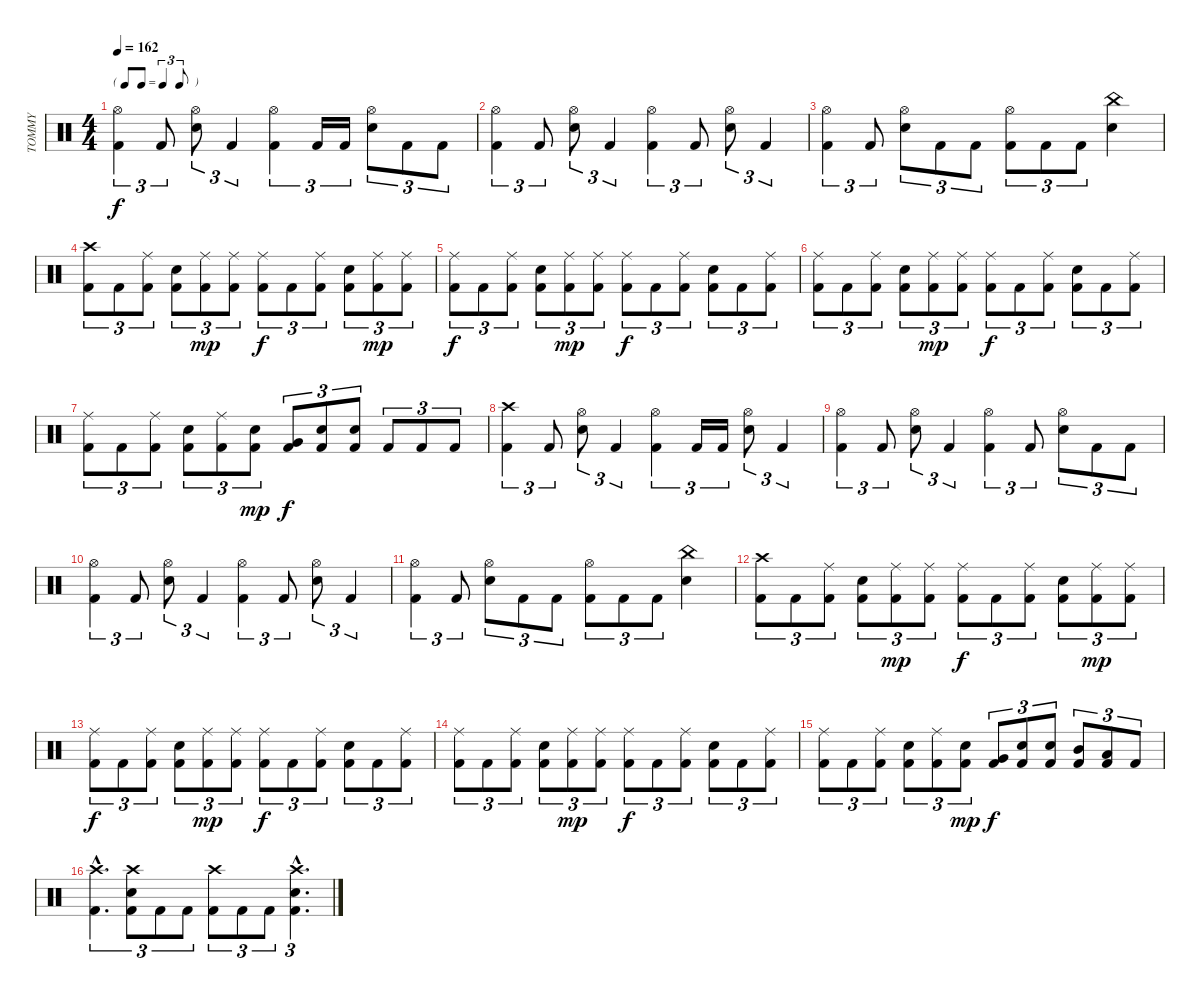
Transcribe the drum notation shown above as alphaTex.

\track ("TOMMY" "TOMMY") {instrument percussion}
\staff {score}
\articulation defaults
\ts (4 4)
\tf triplet8th
\tempo 162
\clef neutral
\ks c
("Kick (hit) 2" "Hi-Hat (open)").4{tu (3 2) dy f} "Kick (hit) 2".8{tu (3 2)} ("Snare (hit) 2" "Hi-Hat (open)").8{tu (3 2)} "Kick (hit) 2".4{tu (3 2)} ("Kick (hit) 2" "Hi-Hat (open)").4{tu (3 2)} "Kick (hit) 2".16{tu (3 2)} "Kick (hit) 2".16{tu (3 2)} ("Snare (hit) 2" "Hi-Hat (open)").8{tu (3 2)} "Kick (hit) 2".8{tu (3 2)} "Kick (hit) 2".8{tu (3 2)} |
("Kick (hit) 2" "Hi-Hat (open)").4{tu (3 2)} "Kick (hit) 2".8{tu (3 2)} ("Snare (hit) 2" "Hi-Hat (open)").8{tu (3 2)} "Kick (hit) 2".4{tu (3 2)} ("Kick (hit) 2" "Hi-Hat (open)").4{tu (3 2)} "Kick (hit) 2".8{tu (3 2)} ("Snare (hit) 2" "Hi-Hat (open)").8{tu (3 2)} "Kick (hit) 2".4{tu (3 2)} |
("Kick (hit) 2" "Hi-Hat (open)").4{tu (3 2)} "Kick (hit) 2".8{tu (3 2)} ("Snare (hit) 2" "Hi-Hat (open)").8{tu (3 2)} "Kick (hit) 2".8{tu (3 2)} "Kick (hit) 2".8{tu (3 2)} ("Kick (hit) 2" "Hi-Hat (open)").8{tu (3 2)} "Kick (hit) 2".8{tu (3 2)} "Kick (hit) 2".8{tu (3 2)} ("Snare (hit) 2" "China (hit)").4 |
("Kick (hit) 2" "Crash high (hit)").8{tu (3 2)} "Kick (hit) 2".8{tu (3 2)} ("Kick (hit) 2" "Ride (middle)").8{tu (3 2)} ("Snare (hit) 2" "Kick (hit) 2").8{tu (3 2)} ("Kick (hit) 2" "Ride (middle)").8{tu (3 2) dy mp} ("Kick (hit) 2" "Ride (middle)").8{tu (3 2)} ("Kick (hit) 2" "Ride (middle)").8{tu (3 2) dy f} "Kick (hit) 2".8{tu (3 2)} ("Kick (hit) 2" "Ride (middle)").8{tu (3 2)} ("Snare (hit) 2" "Kick (hit) 2").8{tu (3 2)} ("Kick (hit) 2" "Ride (middle)").8{tu (3 2) dy mp} ("Kick (hit) 2" "Ride (middle)").8{tu (3 2)} |
("Kick (hit) 2" "Ride (middle)").8{tu (3 2) dy f} "Kick (hit) 2".8{tu (3 2)} ("Kick (hit) 2" "Ride (middle)").8{tu (3 2)} ("Snare (hit) 2" "Kick (hit) 2").8{tu (3 2)} ("Kick (hit) 2" "Ride (middle)").8{tu (3 2) dy mp} ("Kick (hit) 2" "Ride (middle)").8{tu (3 2)} ("Kick (hit) 2" "Ride (middle)").8{tu (3 2) dy f} "Kick (hit) 2".8{tu (3 2)} ("Kick (hit) 2" "Ride (middle)").8{tu (3 2)} ("Snare (hit) 2" "Kick (hit) 2").8{tu (3 2)} "Kick (hit) 2".8{tu (3 2)} ("Kick (hit) 2" "Ride (middle)").8{tu (3 2)} |
("Kick (hit) 2" "Ride (middle)").8{tu (3 2)} "Kick (hit) 2".8{tu (3 2)} ("Kick (hit) 2" "Ride (middle)").8{tu (3 2)} ("Snare (hit) 2" "Kick (hit) 2").8{tu (3 2)} ("Kick (hit) 2" "Ride (middle)").8{tu (3 2) dy mp} ("Kick (hit) 2" "Ride (middle)").8{tu (3 2)} ("Kick (hit) 2" "Ride (middle)").8{tu (3 2) dy f} "Kick (hit) 2".8{tu (3 2)} ("Kick (hit) 2" "Ride (middle)").8{tu (3 2)} ("Snare (hit) 2" "Kick (hit) 2").8{tu (3 2)} "Kick (hit) 2".8{tu (3 2)} ("Kick (hit) 2" "Ride (middle)").8{tu (3 2)} |
("Kick (hit) 2" "Ride (middle)").8{tu (3 2)} "Kick (hit) 2".8{tu (3 2)} ("Kick (hit) 2" "Ride (middle)").8{tu (3 2)} ("Snare (hit) 2" "Kick (hit) 2").8{tu (3 2)} ("Kick (hit) 2" "Ride (middle)").8{tu (3 2)} ("Snare (hit) 2" "Kick (hit) 2").8{tu (3 2) dy mp} ("Kick (hit) 2" "Very Low Tom (hit)").8{tu (3 2) dy f} ("Snare (hit) 2" "Kick (hit) 2").8{tu (3 2)} ("Snare (hit) 2" "Kick (hit) 2").8{tu (3 2)} "Kick (hit) 2".8{tu (3 2)} "Kick (hit) 2".8{tu (3 2)} "Kick (hit) 2".8{tu (3 2)} |
("Kick (hit) 2" "Crash high (hit)").4{tu (3 2)} "Kick (hit) 2".8{tu (3 2)} ("Snare (hit) 2" "Hi-Hat (open)").8{tu (3 2)} "Kick (hit) 2".4{tu (3 2)} ("Kick (hit) 2" "Hi-Hat (open)").4{tu (3 2)} "Kick (hit) 2".16{tu (3 2)} "Kick (hit) 2".16{tu (3 2)} ("Snare (hit) 2" "Hi-Hat (open)").8{tu (3 2)} "Kick (hit) 2".4{tu (3 2)} |
("Kick (hit) 2" "Hi-Hat (open)").4{tu (3 2)} "Kick (hit) 2".8{tu (3 2)} ("Snare (hit) 2" "Hi-Hat (open)").8{tu (3 2)} "Kick (hit) 2".4{tu (3 2)} ("Kick (hit) 2" "Hi-Hat (open)").4{tu (3 2)} "Kick (hit) 2".8{tu (3 2)} ("Snare (hit) 2" "Hi-Hat (open)").8{tu (3 2)} "Kick (hit) 2".8{tu (3 2)} "Kick (hit) 2".8{tu (3 2)} |
("Kick (hit) 2" "Hi-Hat (open)").4{tu (3 2)} "Kick (hit) 2".8{tu (3 2)} ("Snare (hit) 2" "Hi-Hat (open)").8{tu (3 2)} "Kick (hit) 2".4{tu (3 2)} ("Kick (hit) 2" "Hi-Hat (open)").4{tu (3 2)} "Kick (hit) 2".8{tu (3 2)} ("Snare (hit) 2" "Hi-Hat (open)").8{tu (3 2)} "Kick (hit) 2".4{tu (3 2)} |
("Kick (hit) 2" "Hi-Hat (open)").4{tu (3 2)} "Kick (hit) 2".8{tu (3 2)} ("Snare (hit) 2" "Hi-Hat (open)").8{tu (3 2)} "Kick (hit) 2".8{tu (3 2)} "Kick (hit) 2".8{tu (3 2)} ("Kick (hit) 2" "Hi-Hat (open)").8{tu (3 2)} "Kick (hit) 2".8{tu (3 2)} "Kick (hit) 2".8{tu (3 2)} ("Snare (hit) 2" "China (hit)").4 |
("Kick (hit) 2" "Crash high (hit)").8{tu (3 2)} "Kick (hit) 2".8{tu (3 2)} ("Kick (hit) 2" "Ride (middle)").8{tu (3 2)} ("Snare (hit) 2" "Kick (hit) 2").8{tu (3 2)} ("Kick (hit) 2" "Ride (middle)").8{tu (3 2) dy mp} ("Kick (hit) 2" "Ride (middle)").8{tu (3 2)} ("Kick (hit) 2" "Ride (middle)").8{tu (3 2) dy f} "Kick (hit) 2".8{tu (3 2)} ("Kick (hit) 2" "Ride (middle)").8{tu (3 2)} ("Snare (hit) 2" "Kick (hit) 2").8{tu (3 2)} ("Kick (hit) 2" "Ride (middle)").8{tu (3 2) dy mp} ("Kick (hit) 2" "Ride (middle)").8{tu (3 2)} |
("Kick (hit) 2" "Ride (middle)").8{tu (3 2) dy f} "Kick (hit) 2".8{tu (3 2)} ("Kick (hit) 2" "Ride (middle)").8{tu (3 2)} ("Snare (hit) 2" "Kick (hit) 2").8{tu (3 2)} ("Kick (hit) 2" "Ride (middle)").8{tu (3 2) dy mp} ("Kick (hit) 2" "Ride (middle)").8{tu (3 2)} ("Kick (hit) 2" "Ride (middle)").8{tu (3 2) dy f} "Kick (hit) 2".8{tu (3 2)} ("Kick (hit) 2" "Ride (middle)").8{tu (3 2)} ("Snare (hit) 2" "Kick (hit) 2").8{tu (3 2)} "Kick (hit) 2".8{tu (3 2)} ("Kick (hit) 2" "Ride (middle)").8{tu (3 2)} |
("Kick (hit) 2" "Ride (middle)").8{tu (3 2)} "Kick (hit) 2".8{tu (3 2)} ("Kick (hit) 2" "Ride (middle)").8{tu (3 2)} ("Snare (hit) 2" "Kick (hit) 2").8{tu (3 2)} ("Kick (hit) 2" "Ride (middle)").8{tu (3 2) dy mp} ("Kick (hit) 2" "Ride (middle)").8{tu (3 2)} ("Kick (hit) 2" "Ride (middle)").8{tu (3 2) dy f} "Kick (hit) 2".8{tu (3 2)} ("Kick (hit) 2" "Ride (middle)").8{tu (3 2)} ("Snare (hit) 2" "Kick (hit) 2").8{tu (3 2)} "Kick (hit) 2".8{tu (3 2)} ("Kick (hit) 2" "Ride (middle)").8{tu (3 2)} |
("Kick (hit) 2" "Ride (middle)").8{tu (3 2)} "Kick (hit) 2".8{tu (3 2)} ("Kick (hit) 2" "Ride (middle)").8{tu (3 2)} ("Snare (hit) 2" "Kick (hit) 2").8{tu (3 2)} ("Kick (hit) 2" "Ride (middle)").8{tu (3 2)} ("Snare (hit) 2" "Kick (hit) 2").8{tu (3 2) dy mp} ("Kick (hit) 2" "Very Low Tom (hit)").8{tu (3 2) dy f} ("Snare (hit) 2" "Kick (hit) 2").8{tu (3 2)} ("Snare (hit) 2" "Kick (hit) 2").8{tu (3 2)} ("Kick (hit) 2" "Mid Tom (hit)").8{tu (3 2)} ("Kick (hit) 2" "Low Floor Tom (hit)").8{tu (3 2)} "Kick (hit) 2".8{tu (3 2)} |
("Kick (hit) 2"{hac} "Crash high (hit)"{hac}).4{d tu (3 2)} ("Snare (hit) 2" "Kick (hit) 2" "Crash high (hit)").8{tu (3 2)} "Kick (hit) 2".8{tu (3 2)} "Kick (hit) 2".8{tu (3 2)} ("Kick (hit) 2" "Crash high (hit)").8{tu (3 2)} "Kick (hit) 2".8{tu (3 2)} "Kick (hit) 2".8{tu (3 2)} ("Snare (hit) 2"{hac} "Kick (hit) 2"{hac} "Crash high (hit)"{hac}).4{d tu (3 2)}
